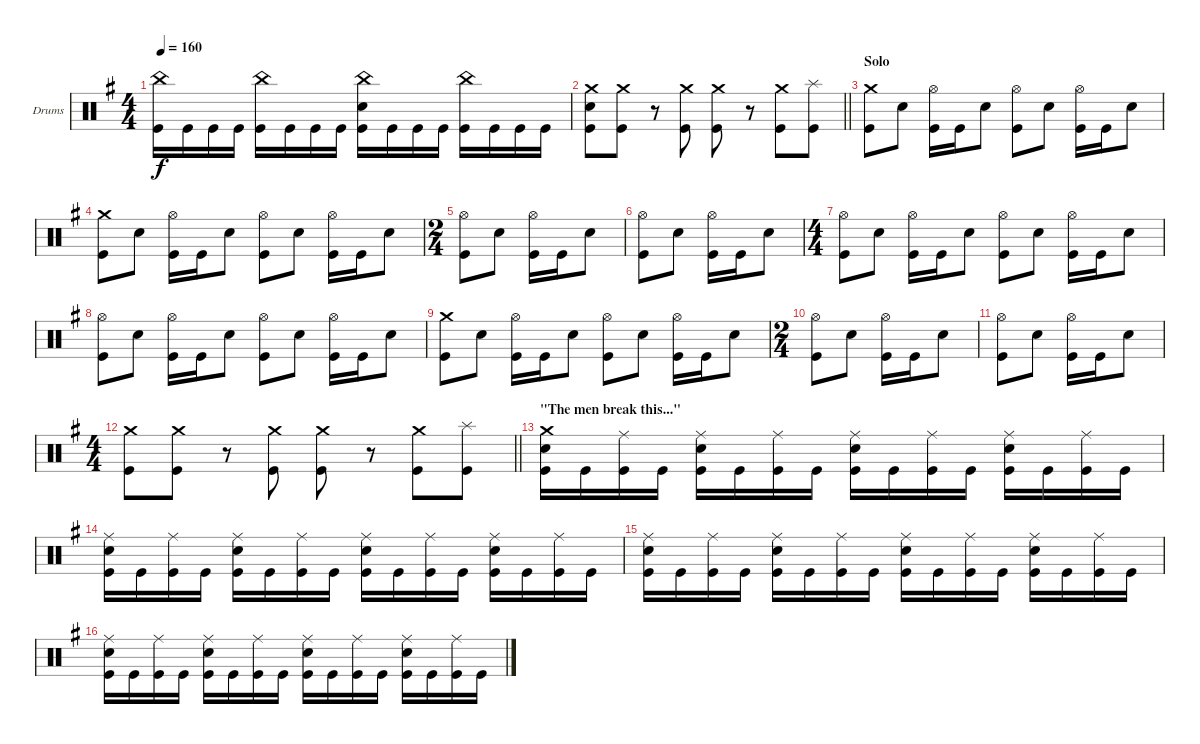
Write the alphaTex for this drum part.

\bracketExtendMode groupsimilarinstruments
\firstSystemTrackNameOrientation horizontal
\otherSystemsTrackNameOrientation horizontal
\track ("Drumkit" "Drums") {instrument percussion}
\staff {score}
\articulation defaults
\ts (4 4)
\tempo 160
\clef neutral
\scale
0.607843
\ks g
("China (hit)" "Kick (hit)").16{dy f} "Kick (hit)".16 "Kick (hit)".16 "Kick (hit)".16 ("China (hit)" "Kick (hit)").16 "Kick (hit)".16 "Kick (hit)".16 "Kick (hit)".16 ("China (hit)" "Snare (hit) 2" "Kick (hit)").16 "Kick (hit)".16 "Kick (hit)".16 "Kick (hit)".16 ("China (hit)" "Kick (hit)").16 "Kick (hit)".16 "Kick (hit)".16 "Kick (hit)".16 |
\scale
0.392157
\barLineRight lightlight
("Crash medium (hit)" "Snare (hit) 2" "Kick (hit)").8 ("Crash medium (hit)" "Kick (hit)").8 r.8 ("Crash medium (hit)" "Kick (hit)").8 ("Crash medium (hit)" "Kick (hit)").8 r.8 ("Crash medium (hit)" "Kick (hit)").8 ("Splash (hit)" "Kick (hit)").8 |
\section ("" "Solo")
\scale
0.5 ("Crash medium (hit)" "Kick (hit)").8 "Snare (hit) 2".8 ("Hi-Hat (open)" "Kick (hit)").16 "Kick (hit)".16 "Snare (hit) 2".8 ("Hi-Hat (open)" "Kick (hit)").8 "Snare (hit) 2".8 ("Hi-Hat (open)" "Kick (hit)").16 "Kick (hit)".16 "Snare (hit) 2".8 |
("Crash medium (hit)" "Kick (hit)").8 "Snare (hit) 2".8 ("Hi-Hat (open)" "Kick (hit)").16 "Kick (hit)".16 "Snare (hit) 2".8 ("Hi-Hat (open)" "Kick (hit)").8 "Snare (hit) 2".8 ("Hi-Hat (open)" "Kick (hit)").16 "Kick (hit)".16 "Snare (hit) 2".8 |
\ts (2 4)
("Hi-Hat (open)" "Kick (hit)").8 "Snare (hit) 2".8 ("Hi-Hat (open)" "Kick (hit)").16 "Kick (hit)".16 "Snare (hit) 2".8 |
\scale
0.5 ("Hi-Hat (open)" "Kick (hit)").8 "Snare (hit) 2".8 ("Hi-Hat (open)" "Kick (hit)").16 "Kick (hit)".16 "Snare (hit) 2".8 |
\ts (4 4)
\scale
0.5 ("Hi-Hat (open)" "Kick (hit)").8 "Snare (hit) 2".8 ("Hi-Hat (open)" "Kick (hit)").16 "Kick (hit)".16 "Snare (hit) 2".8 ("Hi-Hat (open)" "Kick (hit)").8 "Snare (hit) 2".8 ("Hi-Hat (open)" "Kick (hit)").16 "Kick (hit)".16 "Snare (hit) 2".8 |
\scale
0.5 ("Hi-Hat (open)" "Kick (hit)").8 "Snare (hit) 2".8 ("Hi-Hat (open)" "Kick (hit)").16 "Kick (hit)".16 "Snare (hit) 2".8 ("Hi-Hat (open)" "Kick (hit)").8 "Snare (hit) 2".8 ("Hi-Hat (open)" "Kick (hit)").16 "Kick (hit)".16 "Snare (hit) 2".8 |
\scale
0.5 ("Crash medium (hit)" "Kick (hit)").8 "Snare (hit) 2".8 ("Hi-Hat (open)" "Kick (hit)").16 "Kick (hit)".16 "Snare (hit) 2".8 ("Hi-Hat (open)" "Kick (hit)").8 "Snare (hit) 2".8 ("Hi-Hat (open)" "Kick (hit)").16 "Kick (hit)".16 "Snare (hit) 2".8 |
\ts (2 4)
\scale
0.5 ("Hi-Hat (open)" "Kick (hit)").8 "Snare (hit) 2".8 ("Hi-Hat (open)" "Kick (hit)").16 "Kick (hit)".16 "Snare (hit) 2".8 |
\scale
0.548023 ("Hi-Hat (open)" "Kick (hit)").8 "Snare (hit) 2".8 ("Hi-Hat (open)" "Kick (hit)").16 "Kick (hit)".16 "Snare (hit) 2".8 |
\ts (4 4)
\scale
0.451977
\barLineRight lightlight
("Crash medium (hit)" "Kick (hit)").8 ("Crash medium (hit)" "Kick (hit)").8 r.8 ("Crash medium (hit)" "Kick (hit)").8 ("Crash medium (hit)" "Kick (hit)").8 r.8 ("Crash medium (hit)" "Kick (hit)").8 ("Splash (hit)" "Kick (hit)").8 |
\section ("" "\"The men break this...\"")
\scale
0.532189 ("Crash medium (hit)" "Snare (hit) 2" "Kick (hit)").16 "Kick (hit)".16 ("Ride (middle)" "Kick (hit)").16 "Kick (hit)".16 ("Ride (middle)" "Snare (hit) 2" "Kick (hit)").16 "Kick (hit)".16 ("Ride (middle)" "Kick (hit)").16 "Kick (hit)".16 ("Ride (middle)" "Snare (hit) 2" "Kick (hit)").16 "Kick (hit)".16 ("Ride (middle)" "Kick (hit)").16 "Kick (hit)".16 ("Ride (middle)" "Snare (hit) 2" "Kick (hit)").16 "Kick (hit)".16 ("Ride (middle)" "Kick (hit)").16 "Kick (hit)".16 |
\scale
0.5 ("Ride (middle)" "Snare (hit) 2" "Kick (hit)").16 "Kick (hit)".16 ("Ride (middle)" "Kick (hit)").16 "Kick (hit)".16 ("Ride (middle)" "Snare (hit) 2" "Kick (hit)").16 "Kick (hit)".16 ("Ride (middle)" "Kick (hit)").16 "Kick (hit)".16 ("Ride (middle)" "Snare (hit) 2" "Kick (hit)").16 "Kick (hit)".16 ("Ride (middle)" "Kick (hit)").16 "Kick (hit)".16 ("Ride (middle)" "Snare (hit) 2" "Kick (hit)").16 "Kick (hit)".16 ("Ride (middle)" "Kick (hit)").16 "Kick (hit)".16 |
\scale
0.5 ("Ride (middle)" "Snare (hit) 2" "Kick (hit)").16 "Kick (hit)".16 ("Ride (middle)" "Kick (hit)").16 "Kick (hit)".16 ("Ride (middle)" "Snare (hit) 2" "Kick (hit)").16 "Kick (hit)".16 ("Ride (middle)" "Kick (hit)").16 "Kick (hit)".16 ("Ride (middle)" "Snare (hit) 2" "Kick (hit)").16 "Kick (hit)".16 ("Ride (middle)" "Kick (hit)").16 "Kick (hit)".16 ("Ride (middle)" "Snare (hit) 2" "Kick (hit)").16 "Kick (hit)".16 ("Ride (middle)" "Kick (hit)").16 "Kick (hit)".16 |
\scale
0.5 ("Ride (middle)" "Snare (hit) 2" "Kick (hit)").16 "Kick (hit)".16 ("Ride (middle)" "Kick (hit)").16 "Kick (hit)".16 ("Ride (middle)" "Snare (hit) 2" "Kick (hit)").16 "Kick (hit)".16 ("Ride (middle)" "Kick (hit)").16 "Kick (hit)".16 ("Ride (middle)" "Snare (hit) 2" "Kick (hit)").16 "Kick (hit)".16 ("Ride (middle)" "Kick (hit)").16 "Kick (hit)".16 ("Ride (middle)" "Snare (hit) 2" "Kick (hit)").16 "Kick (hit)".16 ("Ride (middle)" "Kick (hit)").16 "Kick (hit)".16
